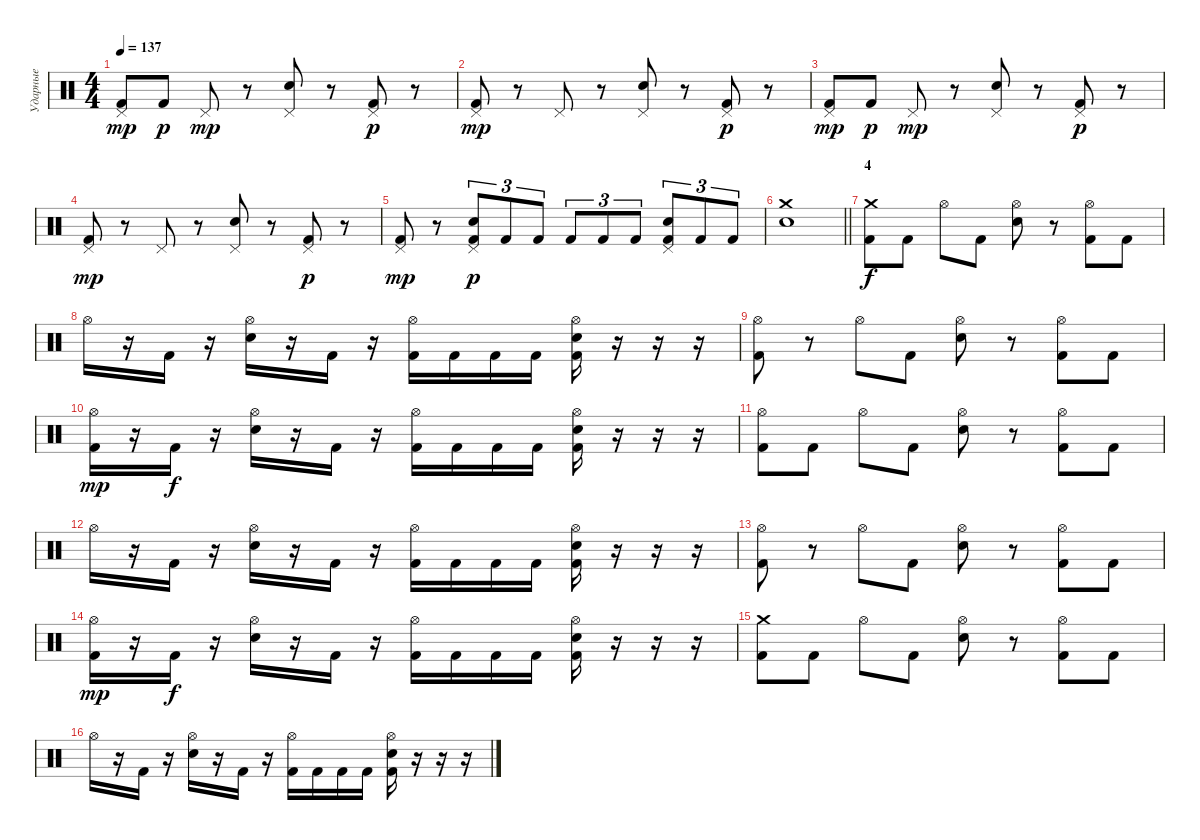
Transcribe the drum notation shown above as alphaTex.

\track ("Ударные" "Ударные") {instrument percussion}
\staff {score}
\articulation defaults
\ts (4 4)
\tempo 137
\clef neutral
\ks c
("Pedal Hi-Hat (hit)" "Kick (hit) 2").8{dy mp} "Kick (hit) 2".8{dy p} "Pedal Hi-Hat (hit)".8{dy mp} r.8 ("Pedal Hi-Hat (hit)" "Snare (hit) 2").8 r.8 ("Pedal Hi-Hat (hit)" "Kick (hit) 2").8{dy p} r.8 |
("Pedal Hi-Hat (hit)" "Kick (hit) 2").8{dy mp} r.8 "Pedal Hi-Hat (hit)".8 r.8 ("Pedal Hi-Hat (hit)" "Snare (hit) 2").8 r.8 ("Pedal Hi-Hat (hit)" "Kick (hit) 2").8{dy p} r.8 |
("Pedal Hi-Hat (hit)" "Kick (hit) 2").8{dy mp} "Kick (hit) 2".8{dy p} "Pedal Hi-Hat (hit)".8{dy mp} r.8 ("Pedal Hi-Hat (hit)" "Snare (hit) 2").8 r.8 ("Pedal Hi-Hat (hit)" "Kick (hit) 2").8{dy p} r.8 |
("Pedal Hi-Hat (hit)" "Kick (hit) 2").8{dy mp} r.8 "Pedal Hi-Hat (hit)".8 r.8 ("Pedal Hi-Hat (hit)" "Snare (hit) 2").8 r.8 ("Pedal Hi-Hat (hit)" "Kick (hit) 2").8{dy p} r.8 |
("Pedal Hi-Hat (hit)" "Kick (hit) 2").8{dy mp} r.8 ("Pedal Hi-Hat (hit)" "Snare (hit) 2" "Kick (hit) 2").8{tu (3 2) dy p} "Kick (hit) 2".8{tu (3 2)} "Kick (hit) 2".8{tu (3 2)} "Kick (hit) 2".8{tu (3 2)} "Kick (hit) 2".8{tu (3 2)} "Kick (hit) 2".8{tu (3 2)} ("Pedal Hi-Hat (hit)" "Snare (hit) 2" "Kick (hit) 2").8{tu (3 2)} "Kick (hit) 2".8{tu (3 2)} "Kick (hit) 2".8{tu (3 2)} |
\barLineRight lightlight
("Crash medium (hit)" "Snare (hit) 2").1 |
\section ("" "4")
("Crash medium (hit)" "Kick (hit) 2").8{dy f} "Kick (hit) 2".8 "Hi-Hat (open)".8 "Kick (hit) 2".8 ("Hi-Hat (open)" "Snare (hit) 2").8 r.8 ("Hi-Hat (open)" "Kick (hit) 2").8 "Kick (hit) 2".8 |
"Hi-Hat (open)".16 r.16 "Kick (hit) 2".16 r.16 ("Hi-Hat (open)" "Snare (hit) 2").16 r.16 "Kick (hit) 2".16 r.16 ("Hi-Hat (open)" "Kick (hit) 2").16 "Kick (hit) 2".16 "Kick (hit) 2".16 "Kick (hit) 2".16 ("Hi-Hat (open)" "Snare (hit) 2" "Kick (hit) 2").16 r.16 r.16 r.16 |
("Hi-Hat (open)" "Kick (hit) 2").8 r.8 "Hi-Hat (open)".8 "Kick (hit) 2".8 ("Hi-Hat (open)" "Snare (hit) 2").8 r.8 ("Hi-Hat (open)" "Kick (hit) 2").8 "Kick (hit) 2".8 |
("Hi-Hat (open)" "Kick (hit) 2").16{dy mp} r.16 "Kick (hit) 2".16{dy f} r.16 ("Hi-Hat (open)" "Snare (hit) 2").16 r.16 "Kick (hit) 2".16 r.16 ("Hi-Hat (open)" "Kick (hit) 2").16 "Kick (hit) 2".16 "Kick (hit) 2".16 "Kick (hit) 2".16 ("Hi-Hat (open)" "Snare (hit) 2" "Kick (hit) 2").16 r.16 r.16 r.16 |
("Hi-Hat (open)" "Kick (hit) 2").8 "Kick (hit) 2".8 "Hi-Hat (open)".8 "Kick (hit) 2".8 ("Hi-Hat (open)" "Snare (hit) 2").8 r.8 ("Hi-Hat (open)" "Kick (hit) 2").8 "Kick (hit) 2".8 |
"Hi-Hat (open)".16 r.16 "Kick (hit) 2".16 r.16 ("Hi-Hat (open)" "Snare (hit) 2").16 r.16 "Kick (hit) 2".16 r.16 ("Hi-Hat (open)" "Kick (hit) 2").16 "Kick (hit) 2".16 "Kick (hit) 2".16 "Kick (hit) 2".16 ("Hi-Hat (open)" "Snare (hit) 2" "Kick (hit) 2").16 r.16 r.16 r.16 |
("Hi-Hat (open)" "Kick (hit) 2").8 r.8 "Hi-Hat (open)".8 "Kick (hit) 2".8 ("Hi-Hat (open)" "Snare (hit) 2").8 r.8 ("Hi-Hat (open)" "Kick (hit) 2").8 "Kick (hit) 2".8 |
("Hi-Hat (open)" "Kick (hit) 2").16{dy mp} r.16 "Kick (hit) 2".16{dy f} r.16 ("Hi-Hat (open)" "Snare (hit) 2").16 r.16 "Kick (hit) 2".16 r.16 ("Hi-Hat (open)" "Kick (hit) 2").16 "Kick (hit) 2".16 "Kick (hit) 2".16 "Kick (hit) 2".16 ("Hi-Hat (open)" "Snare (hit) 2" "Kick (hit) 2").16 r.16 r.16 r.16 |
("Crash medium (hit)" "Kick (hit) 2").8 "Kick (hit) 2".8 "Hi-Hat (open)".8 "Kick (hit) 2".8 ("Hi-Hat (open)" "Snare (hit) 2").8 r.8 ("Hi-Hat (open)" "Kick (hit) 2").8 "Kick (hit) 2".8 |
"Hi-Hat (open)".16 r.16 "Kick (hit) 2".16 r.16 ("Hi-Hat (open)" "Snare (hit) 2").16 r.16 "Kick (hit) 2".16 r.16 ("Hi-Hat (open)" "Kick (hit) 2").16 "Kick (hit) 2".16 "Kick (hit) 2".16 "Kick (hit) 2".16 ("Hi-Hat (open)" "Snare (hit) 2" "Kick (hit) 2").16 r.16 r.16 r.16
